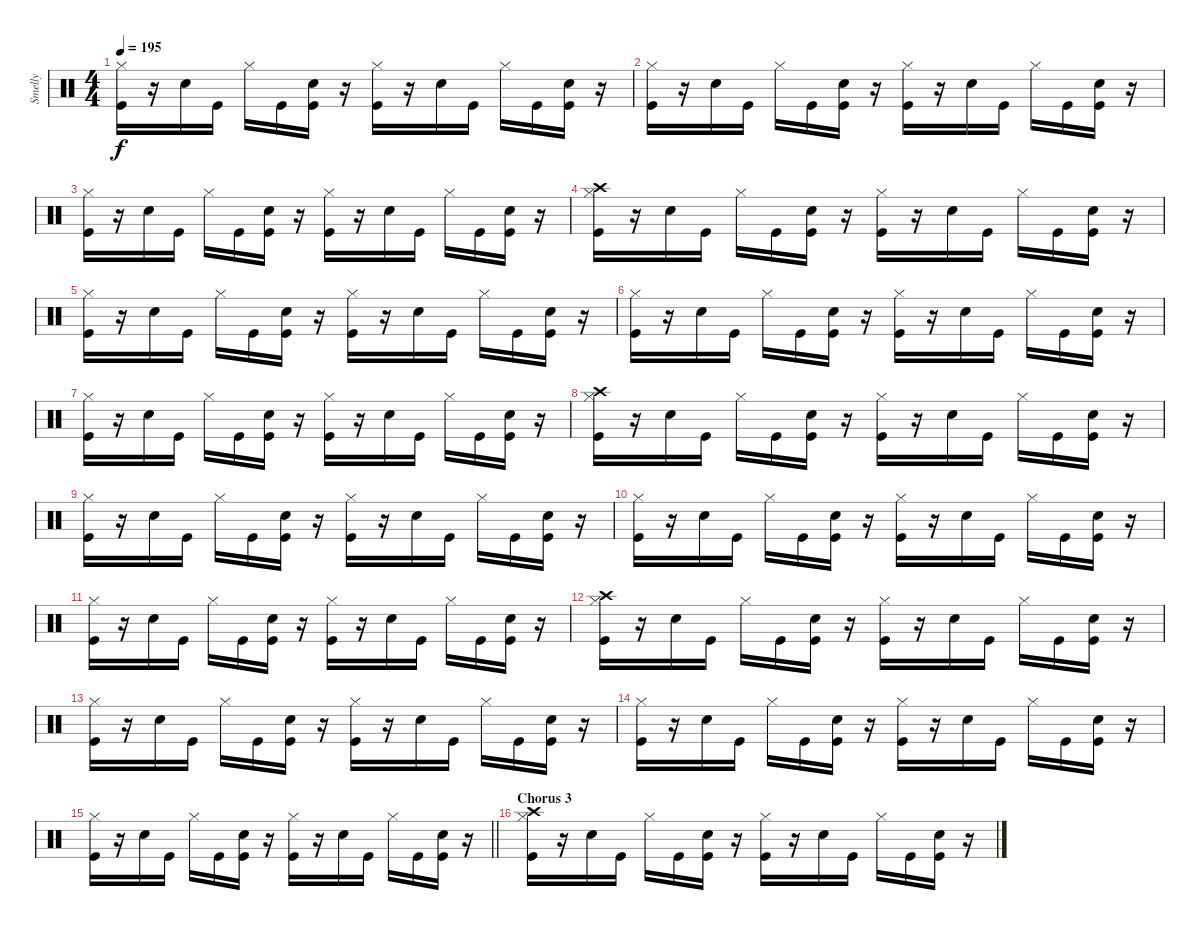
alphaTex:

\track ("Smelly" "Smelly") {instrument percussion}
\staff {score}
\articulation defaults
\ts (4 4)
\tempo 195
\clef neutral
\ks c
("Hi-Hat (closed)" "Kick (hit)").16{dy f} r.16 "Snare (hit) 2".16 "Kick (hit)".16 "Hi-Hat (closed)".16 "Kick (hit)".16 ("Snare (hit) 2" "Kick (hit)").16 r.16 ("Hi-Hat (closed)" "Kick (hit)").16 r.16 "Snare (hit) 2".16 "Kick (hit)".16 "Hi-Hat (closed)".16 "Kick (hit)".16 ("Snare (hit) 2" "Kick (hit)").16 r.16 |
("Hi-Hat (closed)" "Kick (hit)").16 r.16 "Snare (hit) 2".16 "Kick (hit)".16 "Hi-Hat (closed)".16 "Kick (hit)".16 ("Snare (hit) 2" "Kick (hit)").16 r.16 ("Hi-Hat (closed)" "Kick (hit)").16 r.16 "Snare (hit) 2".16 "Kick (hit)".16 "Hi-Hat (closed)".16 "Kick (hit)".16 ("Snare (hit) 2" "Kick (hit)").16 r.16 |
("Hi-Hat (closed)" "Kick (hit)").16 r.16 "Snare (hit) 2".16 "Kick (hit)".16 "Hi-Hat (closed)".16 "Kick (hit)".16 ("Snare (hit) 2" "Kick (hit)").16 r.16 ("Hi-Hat (closed)" "Kick (hit)").16 r.16 "Snare (hit) 2".16 "Kick (hit)".16 "Hi-Hat (closed)".16 "Kick (hit)".16 ("Snare (hit) 2" "Kick (hit)").16 r.16 |
("Crash high (hit)" "Hi-Hat (closed)" "Kick (hit)").16 r.16 "Snare (hit) 2".16 "Kick (hit)".16 "Hi-Hat (closed)".16 "Kick (hit)".16 ("Snare (hit) 2" "Kick (hit)").16 r.16 ("Hi-Hat (closed)" "Kick (hit)").16 r.16 "Snare (hit) 2".16 "Kick (hit)".16 "Hi-Hat (closed)".16 "Kick (hit)".16 ("Snare (hit) 2" "Kick (hit)").16 r.16 |
("Hi-Hat (closed)" "Kick (hit)").16 r.16 "Snare (hit) 2".16 "Kick (hit)".16 "Hi-Hat (closed)".16 "Kick (hit)".16 ("Snare (hit) 2" "Kick (hit)").16 r.16 ("Hi-Hat (closed)" "Kick (hit)").16 r.16 "Snare (hit) 2".16 "Kick (hit)".16 "Hi-Hat (closed)".16 "Kick (hit)".16 ("Snare (hit) 2" "Kick (hit)").16 r.16 |
("Hi-Hat (closed)" "Kick (hit)").16 r.16 "Snare (hit) 2".16 "Kick (hit)".16 "Hi-Hat (closed)".16 "Kick (hit)".16 ("Snare (hit) 2" "Kick (hit)").16 r.16 ("Hi-Hat (closed)" "Kick (hit)").16 r.16 "Snare (hit) 2".16 "Kick (hit)".16 "Hi-Hat (closed)".16 "Kick (hit)".16 ("Snare (hit) 2" "Kick (hit)").16 r.16 |
("Hi-Hat (closed)" "Kick (hit)").16 r.16 "Snare (hit) 2".16 "Kick (hit)".16 "Hi-Hat (closed)".16 "Kick (hit)".16 ("Snare (hit) 2" "Kick (hit)").16 r.16 ("Hi-Hat (closed)" "Kick (hit)").16 r.16 "Snare (hit) 2".16 "Kick (hit)".16 "Hi-Hat (closed)".16 "Kick (hit)".16 ("Snare (hit) 2" "Kick (hit)").16 r.16 |
("Crash high (hit)" "Hi-Hat (closed)" "Kick (hit)").16 r.16 "Snare (hit) 2".16 "Kick (hit)".16 "Hi-Hat (closed)".16 "Kick (hit)".16 ("Snare (hit) 2" "Kick (hit)").16 r.16 ("Hi-Hat (closed)" "Kick (hit)").16 r.16 "Snare (hit) 2".16 "Kick (hit)".16 "Hi-Hat (closed)".16 "Kick (hit)".16 ("Snare (hit) 2" "Kick (hit)").16 r.16 |
("Hi-Hat (closed)" "Kick (hit)").16 r.16 "Snare (hit) 2".16 "Kick (hit)".16 "Hi-Hat (closed)".16 "Kick (hit)".16 ("Snare (hit) 2" "Kick (hit)").16 r.16 ("Hi-Hat (closed)" "Kick (hit)").16 r.16 "Snare (hit) 2".16 "Kick (hit)".16 "Hi-Hat (closed)".16 "Kick (hit)".16 ("Snare (hit) 2" "Kick (hit)").16 r.16 |
("Hi-Hat (closed)" "Kick (hit)").16 r.16 "Snare (hit) 2".16 "Kick (hit)".16 "Hi-Hat (closed)".16 "Kick (hit)".16 ("Snare (hit) 2" "Kick (hit)").16 r.16 ("Hi-Hat (closed)" "Kick (hit)").16 r.16 "Snare (hit) 2".16 "Kick (hit)".16 "Hi-Hat (closed)".16 "Kick (hit)".16 ("Snare (hit) 2" "Kick (hit)").16 r.16 |
("Hi-Hat (closed)" "Kick (hit)").16 r.16 "Snare (hit) 2".16 "Kick (hit)".16 "Hi-Hat (closed)".16 "Kick (hit)".16 ("Snare (hit) 2" "Kick (hit)").16 r.16 ("Hi-Hat (closed)" "Kick (hit)").16 r.16 "Snare (hit) 2".16 "Kick (hit)".16 "Hi-Hat (closed)".16 "Kick (hit)".16 ("Snare (hit) 2" "Kick (hit)").16 r.16 |
("Crash high (hit)" "Hi-Hat (closed)" "Kick (hit)").16 r.16 "Snare (hit) 2".16 "Kick (hit)".16 "Hi-Hat (closed)".16 "Kick (hit)".16 ("Snare (hit) 2" "Kick (hit)").16 r.16 ("Hi-Hat (closed)" "Kick (hit)").16 r.16 "Snare (hit) 2".16 "Kick (hit)".16 "Hi-Hat (closed)".16 "Kick (hit)".16 ("Snare (hit) 2" "Kick (hit)").16 r.16 |
("Hi-Hat (closed)" "Kick (hit)").16 r.16 "Snare (hit) 2".16 "Kick (hit)".16 "Hi-Hat (closed)".16 "Kick (hit)".16 ("Snare (hit) 2" "Kick (hit)").16 r.16 ("Hi-Hat (closed)" "Kick (hit)").16 r.16 "Snare (hit) 2".16 "Kick (hit)".16 "Hi-Hat (closed)".16 "Kick (hit)".16 ("Snare (hit) 2" "Kick (hit)").16 r.16 |
("Hi-Hat (closed)" "Kick (hit)").16 r.16 "Snare (hit) 2".16 "Kick (hit)".16 "Hi-Hat (closed)".16 "Kick (hit)".16 ("Snare (hit) 2" "Kick (hit)").16 r.16 ("Hi-Hat (closed)" "Kick (hit)").16 r.16 "Snare (hit) 2".16 "Kick (hit)".16 "Hi-Hat (closed)".16 "Kick (hit)".16 ("Snare (hit) 2" "Kick (hit)").16 r.16 |
\barLineRight lightlight
("Hi-Hat (closed)" "Kick (hit)").16 r.16 "Snare (hit) 2".16 "Kick (hit)".16 "Hi-Hat (closed)".16 "Kick (hit)".16 ("Snare (hit) 2" "Kick (hit)").16 r.16 ("Hi-Hat (closed)" "Kick (hit)").16 r.16 "Snare (hit) 2".16 "Kick (hit)".16 "Hi-Hat (closed)".16 "Kick (hit)".16 ("Snare (hit) 2" "Kick (hit)").16 r.16 |
\section ("" "Chorus 3")
("Crash high (hit)" "Hi-Hat (closed)" "Kick (hit)").16 r.16 "Snare (hit) 2".16 "Kick (hit)".16 "Hi-Hat (closed)".16 "Kick (hit)".16 ("Snare (hit) 2" "Kick (hit)").16 r.16 ("Hi-Hat (closed)" "Kick (hit)").16 r.16 "Snare (hit) 2".16 "Kick (hit)".16 "Hi-Hat (closed)".16 "Kick (hit)".16 ("Snare (hit) 2" "Kick (hit)").16 r.16
